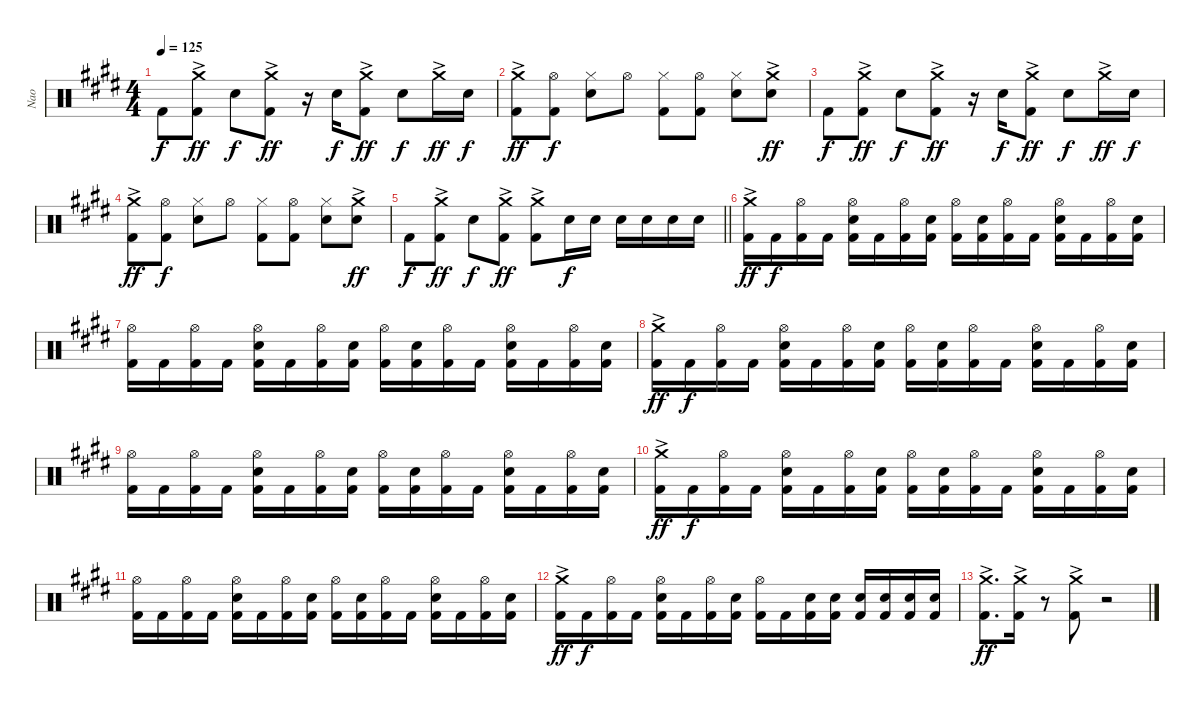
\track ("Nao" "Nao") {instrument percussion}
\staff {score}
\articulation defaults
\ts (4 4)
\tempo 125
\clef neutral
\ks e "Kick (hit) 2".8{dy f}
("Crash medium (hit)"{ac} "Kick (hit) 2").8{dy ff} "Snare (hit) 2".8{dy f} ("Crash medium (hit)"{ac} "Kick (hit) 2").8{dy ff} r.16 "Snare (hit) 2".16{dy f} ("Crash medium (hit)"{ac} "Kick (hit) 2").8{dy ff} "Snare (hit) 2".8{dy f} "Crash medium (hit)"{ac}.16{dy ff} "Snare (hit) 2".16{dy f} |
("Crash medium (hit)"{ac} "Kick (hit) 2").8{dy ff} ("Hi-Hat (open)" "Kick (hit) 2").8{dy f} ("Hi-Hat (closed)" "Snare (hit) 2").8 "Hi-Hat (open)".8 ("Hi-Hat (closed)" "Kick (hit) 2").8 ("Hi-Hat (open)" "Kick (hit) 2").8 ("Hi-Hat (closed)" "Snare (hit) 2").8 ("Crash medium (hit)"{ac} "Snare (hit) 2").8{dy ff} |
"Kick (hit) 2".8{dy f} ("Crash medium (hit)"{ac} "Kick (hit) 2").8{dy ff} "Snare (hit) 2".8{dy f} ("Crash medium (hit)"{ac} "Kick (hit) 2").8{dy ff} r.16 "Snare (hit) 2".16{dy f} ("Crash medium (hit)"{ac} "Kick (hit) 2").8{dy ff} "Snare (hit) 2".8{dy f} "Crash medium (hit)"{ac}.16{dy ff} "Snare (hit) 2".16{dy f} |
("Crash medium (hit)"{ac} "Kick (hit) 2").8{dy ff} ("Hi-Hat (open)" "Kick (hit) 2").8{dy f} ("Hi-Hat (closed)" "Snare (hit) 2").8 "Hi-Hat (open)".8 ("Hi-Hat (closed)" "Kick (hit) 2").8 ("Hi-Hat (open)" "Kick (hit) 2").8 ("Hi-Hat (closed)" "Snare (hit) 2").8 ("Crash medium (hit)"{ac} "Snare (hit) 2").8{dy ff} |
\barLineRight lightlight "Kick (hit) 2".8{dy f}
("Crash medium (hit)"{ac} "Kick (hit) 2").8{dy ff} "Snare (hit) 2".8{dy f} ("Crash medium (hit)"{ac} "Kick (hit) 2").8{dy ff} ("Crash medium (hit)"{ac} "Kick (hit) 2").8 "Snare (hit) 2".16{dy f} "Snare (hit) 2".16 "Snare (hit) 2".16 "Snare (hit) 2".16 "Snare (hit) 2".16 "Snare (hit) 2".16 |
("Crash medium (hit)"{ac} "Kick (hit) 2").16{dy ff} "Kick (hit) 2".16{dy f} ("Hi-Hat (open)" "Kick (hit) 2").16 "Kick (hit) 2".16 ("Hi-Hat (open)" "Snare (hit) 2" "Kick (hit) 2").16 "Kick (hit) 2".16 ("Hi-Hat (open)" "Kick (hit) 2").16 ("Snare (hit) 2" "Kick (hit) 2").16 ("Hi-Hat (open)" "Kick (hit) 2").16 ("Snare (hit) 2" "Kick (hit) 2").16 ("Hi-Hat (open)" "Kick (hit) 2").16 "Kick (hit) 2".16 ("Hi-Hat (open)" "Snare (hit) 2" "Kick (hit) 2").16 "Kick (hit) 2".16 ("Hi-Hat (open)" "Kick (hit) 2").16 ("Snare (hit) 2" "Kick (hit) 2").16 |
("Hi-Hat (open)" "Kick (hit) 2").16 "Kick (hit) 2".16 ("Hi-Hat (open)" "Kick (hit) 2").16 "Kick (hit) 2".16 ("Hi-Hat (open)" "Snare (hit) 2" "Kick (hit) 2").16 "Kick (hit) 2".16 ("Hi-Hat (open)" "Kick (hit) 2").16 ("Snare (hit) 2" "Kick (hit) 2").16 ("Hi-Hat (open)" "Kick (hit) 2").16 ("Snare (hit) 2" "Kick (hit) 2").16 ("Hi-Hat (open)" "Kick (hit) 2").16 "Kick (hit) 2".16 ("Hi-Hat (open)" "Snare (hit) 2" "Kick (hit) 2").16 "Kick (hit) 2".16 ("Hi-Hat (open)" "Kick (hit) 2").16 ("Snare (hit) 2" "Kick (hit) 2").16 |
("Crash medium (hit)"{ac} "Kick (hit) 2").16{dy ff} "Kick (hit) 2".16{dy f} ("Hi-Hat (open)" "Kick (hit) 2").16 "Kick (hit) 2".16 ("Hi-Hat (open)" "Snare (hit) 2" "Kick (hit) 2").16 "Kick (hit) 2".16 ("Hi-Hat (open)" "Kick (hit) 2").16 ("Snare (hit) 2" "Kick (hit) 2").16 ("Hi-Hat (open)" "Kick (hit) 2").16 ("Snare (hit) 2" "Kick (hit) 2").16 ("Hi-Hat (open)" "Kick (hit) 2").16 "Kick (hit) 2".16 ("Hi-Hat (open)" "Snare (hit) 2" "Kick (hit) 2").16 "Kick (hit) 2".16 ("Hi-Hat (open)" "Kick (hit) 2").16 ("Snare (hit) 2" "Kick (hit) 2").16 |
("Hi-Hat (open)" "Kick (hit) 2").16 "Kick (hit) 2".16 ("Hi-Hat (open)" "Kick (hit) 2").16 "Kick (hit) 2".16 ("Hi-Hat (open)" "Snare (hit) 2" "Kick (hit) 2").16 "Kick (hit) 2".16 ("Hi-Hat (open)" "Kick (hit) 2").16 ("Snare (hit) 2" "Kick (hit) 2").16 ("Hi-Hat (open)" "Kick (hit) 2").16 ("Snare (hit) 2" "Kick (hit) 2").16 ("Hi-Hat (open)" "Kick (hit) 2").16 "Kick (hit) 2".16 ("Hi-Hat (open)" "Snare (hit) 2" "Kick (hit) 2").16 "Kick (hit) 2".16 ("Hi-Hat (open)" "Kick (hit) 2").16 ("Snare (hit) 2" "Kick (hit) 2").16 |
("Crash medium (hit)"{ac} "Kick (hit) 2").16{dy ff} "Kick (hit) 2".16{dy f} ("Hi-Hat (open)" "Kick (hit) 2").16 "Kick (hit) 2".16 ("Hi-Hat (open)" "Snare (hit) 2" "Kick (hit) 2").16 "Kick (hit) 2".16 ("Hi-Hat (open)" "Kick (hit) 2").16 ("Snare (hit) 2" "Kick (hit) 2").16 ("Hi-Hat (open)" "Kick (hit) 2").16 ("Snare (hit) 2" "Kick (hit) 2").16 ("Hi-Hat (open)" "Kick (hit) 2").16 "Kick (hit) 2".16 ("Hi-Hat (open)" "Snare (hit) 2" "Kick (hit) 2").16 "Kick (hit) 2".16 ("Hi-Hat (open)" "Kick (hit) 2").16 ("Snare (hit) 2" "Kick (hit) 2").16 |
("Hi-Hat (open)" "Kick (hit) 2").16 "Kick (hit) 2".16 ("Hi-Hat (open)" "Kick (hit) 2").16 "Kick (hit) 2".16 ("Hi-Hat (open)" "Snare (hit) 2" "Kick (hit) 2").16 "Kick (hit) 2".16 ("Hi-Hat (open)" "Kick (hit) 2").16 ("Snare (hit) 2" "Kick (hit) 2").16 ("Hi-Hat (open)" "Kick (hit) 2").16 ("Snare (hit) 2" "Kick (hit) 2").16 ("Hi-Hat (open)" "Kick (hit) 2").16 "Kick (hit) 2".16 ("Hi-Hat (open)" "Snare (hit) 2" "Kick (hit) 2").16 "Kick (hit) 2".16 ("Hi-Hat (open)" "Kick (hit) 2").16 ("Snare (hit) 2" "Kick (hit) 2").16 |
("Crash medium (hit)"{ac} "Kick (hit) 2").16{dy ff} "Kick (hit) 2".16{dy f} ("Hi-Hat (open)" "Kick (hit) 2").16 "Kick (hit) 2".16 ("Hi-Hat (open)" "Snare (hit) 2" "Kick (hit) 2").16 "Kick (hit) 2".16 ("Hi-Hat (open)" "Kick (hit) 2").16 ("Snare (hit) 2" "Kick (hit) 2").16 ("Hi-Hat (open)" "Kick (hit) 2").16 "Kick (hit) 2".16 ("Snare (hit) 2" "Kick (hit) 2").16 ("Snare (hit) 2" "Kick (hit) 2").16 ("Snare (hit) 2" "Kick (hit) 2").16 ("Snare (hit) 2" "Kick (hit) 2").16 ("Snare (hit) 2" "Kick (hit) 2").16 ("Snare (hit) 2" "Kick (hit) 2").16 |
("Crash medium (hit)"{ac} "Kick (hit) 2").8{d dy ff} ("Crash medium (hit)"{ac} "Kick (hit) 2").16 r.8 ("Crash medium (hit)"{ac} "Kick (hit) 2").8 r.2
